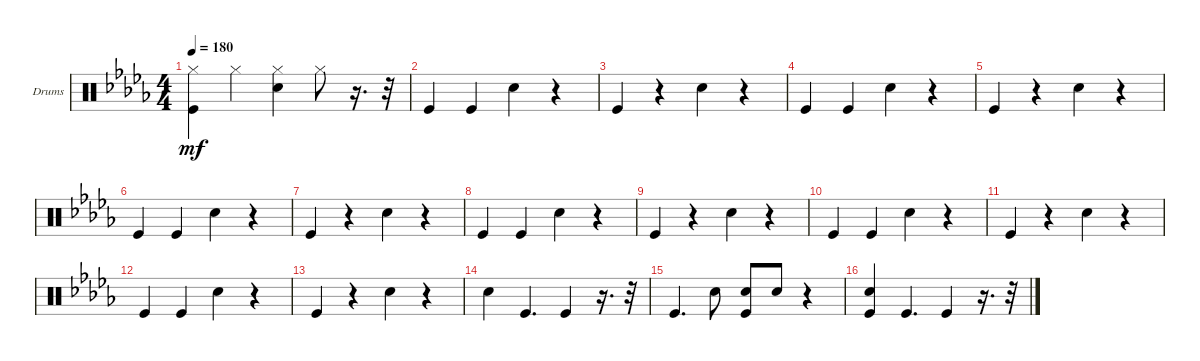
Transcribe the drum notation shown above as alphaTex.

\bracketExtendMode groupsimilarinstruments
\firstSystemTrackNameOrientation horizontal
\otherSystemsTrackNameOrientation horizontal
\track ("Drums" "Drums") {instrument percussion}
\staff {score}
\articulation defaults
\ts (4 4)
\tempo 180
\clef neutral
\ks bbminor
("Kick (hit)" "Hi-Hat (closed)").4{dy mf} "Hi-Hat (closed)".4 ("Snare (hit) 2" "Hi-Hat (closed)").4 "Hi-Hat (closed)".8 r.16{d} r.32 |
"Kick (hit)".4 "Kick (hit)".4 "Snare (hit) 2".4 r.4 |
"Kick (hit)".4 r.4 "Snare (hit) 2".4 r.4 |
"Kick (hit)".4 "Kick (hit)".4 "Snare (hit) 2".4 r.4 |
"Kick (hit)".4 r.4 "Snare (hit) 2".4 r.4 |
"Kick (hit)".4 "Kick (hit)".4 "Snare (hit) 2".4 r.4 |
"Kick (hit)".4 r.4 "Snare (hit) 2".4 r.4 |
"Kick (hit)".4 "Kick (hit)".4 "Snare (hit) 2".4 r.4 |
"Kick (hit)".4 r.4 "Snare (hit) 2".4 r.4 |
"Kick (hit)".4 "Kick (hit)".4 "Snare (hit) 2".4 r.4 |
"Kick (hit)".4 r.4 "Snare (hit) 2".4 r.4 |
"Kick (hit)".4 "Kick (hit)".4 "Snare (hit) 2".4 r.4 |
"Kick (hit)".4 r.4 "Snare (hit) 2".4 r.4 |
"Snare (hit) 2".4 "Kick (hit)".4{d} "Kick (hit)".4 r.16{d} r.32 |
"Kick (hit)".4{d} "Snare (hit) 2".8 ("Kick (hit)" "Snare (hit) 2").8 "Snare (hit) 2".8 r.4 |
("Kick (hit)" "Snare (hit) 2").4 "Kick (hit)".4{d} "Kick (hit)".4 r.16{d} r.32
